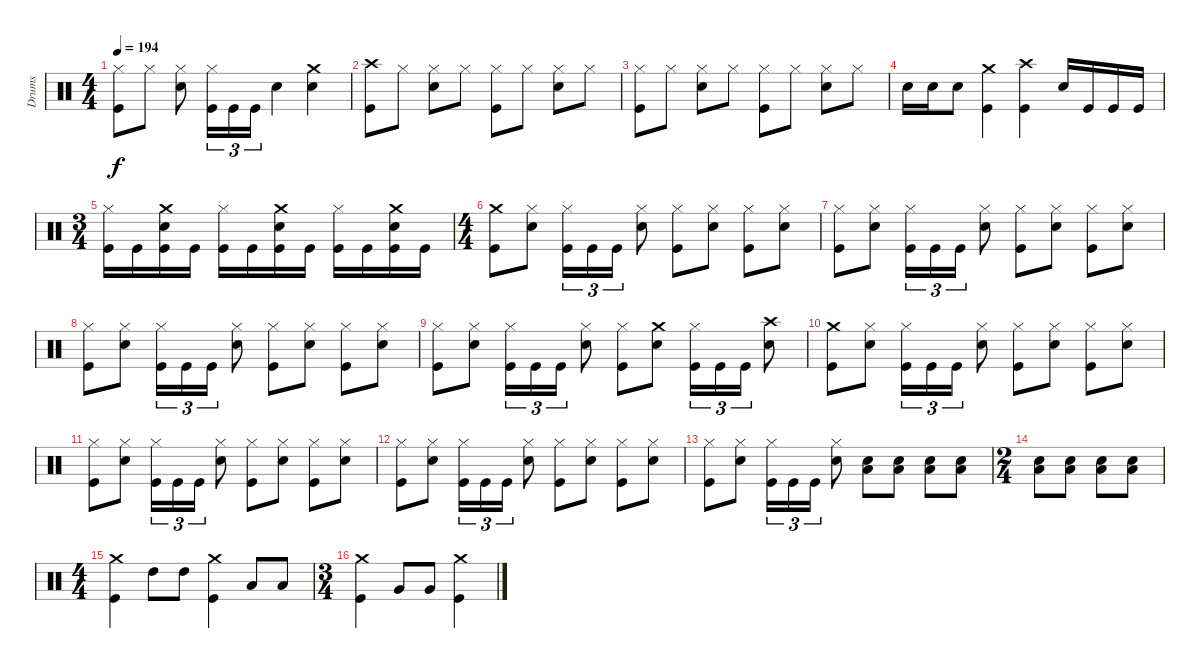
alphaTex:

\track ("Drums" "Drums") {instrument percussion}
\staff {score}
\articulation defaults
\ts (4 4)
\tempo 194
\clef neutral
\ks c
("Hi-Hat (closed)" "Kick (hit)").8{dy f} "Hi-Hat (closed)".8 ("Hi-Hat (closed)" "Snare (hit) 2").8 ("Hi-Hat (closed)" "Kick (hit)").16{tu (3 2)} "Kick (hit)".16{tu (3 2)} "Kick (hit)".16{tu (3 2)} "Snare (hit) 2".4 ("Crash medium (hit)" "Snare (hit) 2").4 |
("Crash high (hit)" "Kick (hit)").8 "Hi-Hat (closed)".8 ("Hi-Hat (closed)" "Snare (hit) 2").8 "Hi-Hat (closed)".8 ("Hi-Hat (closed)" "Kick (hit)").8 "Hi-Hat (closed)".8 ("Hi-Hat (closed)" "Snare (hit) 2").8 "Hi-Hat (closed)".8 |
("Hi-Hat (closed)" "Kick (hit)").8 "Hi-Hat (closed)".8 ("Hi-Hat (closed)" "Snare (hit) 2").8 "Hi-Hat (closed)".8 ("Hi-Hat (closed)" "Kick (hit)").8 "Hi-Hat (closed)".8 ("Hi-Hat (closed)" "Snare (hit) 2").8 "Hi-Hat (closed)".8 |
"Snare (hit) 2".16 "Snare (hit) 2".16 "Snare (hit) 2".8 ("Crash medium (hit)" "Kick (hit)").4 ("Crash high (hit)" "Kick (hit)").4 "Snare (hit) 2".16 "Kick (hit)".16 "Kick (hit)".16 "Kick (hit)".16 |
\ts (3 4)
("Hi-Hat (closed)" "Kick (hit)").16 "Kick (hit)".16 ("Crash medium (hit)" "Snare (hit) 2" "Kick (hit)").16 "Kick (hit)".16 ("Hi-Hat (closed)" "Kick (hit)").16 "Kick (hit)".16 ("Crash medium (hit)" "Snare (hit) 2" "Kick (hit)").16 "Kick (hit)".16 ("Hi-Hat (closed)" "Kick (hit)").16 "Kick (hit)".16 ("Crash medium (hit)" "Snare (hit) 2" "Kick (hit)").16 "Kick (hit)".16 |
\ts (4 4)
("Crash medium (hit)" "Kick (hit)").8 ("Hi-Hat (closed)" "Snare (hit) 2").8 ("Hi-Hat (closed)" "Kick (hit)").16{tu (3 2)} "Kick (hit)".16{tu (3 2)} "Kick (hit)".16{tu (3 2)} ("Hi-Hat (closed)" "Snare (hit) 2").8 ("Hi-Hat (closed)" "Kick (hit)").8 ("Hi-Hat (closed)" "Snare (hit) 2").8 ("Hi-Hat (closed)" "Kick (hit)").8 ("Hi-Hat (closed)" "Snare (hit) 2").8 |
("Hi-Hat (closed)" "Kick (hit)").8 ("Hi-Hat (closed)" "Snare (hit) 2").8 ("Hi-Hat (closed)" "Kick (hit)").16{tu (3 2)} "Kick (hit)".16{tu (3 2)} "Kick (hit)".16{tu (3 2)} ("Hi-Hat (closed)" "Snare (hit) 2").8 ("Hi-Hat (closed)" "Kick (hit)").8 ("Hi-Hat (closed)" "Snare (hit) 2").8 ("Hi-Hat (closed)" "Kick (hit)").8 ("Hi-Hat (closed)" "Snare (hit) 2").8 |
("Hi-Hat (closed)" "Kick (hit)").8 ("Hi-Hat (closed)" "Snare (hit) 2").8 ("Hi-Hat (closed)" "Kick (hit)").16{tu (3 2)} "Kick (hit)".16{tu (3 2)} "Kick (hit)".16{tu (3 2)} ("Hi-Hat (closed)" "Snare (hit) 2").8 ("Hi-Hat (closed)" "Kick (hit)").8 ("Hi-Hat (closed)" "Snare (hit) 2").8 ("Hi-Hat (closed)" "Kick (hit)").8 ("Hi-Hat (closed)" "Snare (hit) 2").8 |
("Hi-Hat (closed)" "Kick (hit)").8 ("Hi-Hat (closed)" "Snare (hit) 2").8 ("Hi-Hat (closed)" "Kick (hit)").16{tu (3 2)} "Kick (hit)".16{tu (3 2)} "Kick (hit)".16{tu (3 2)} ("Hi-Hat (closed)" "Snare (hit) 2").8 ("Hi-Hat (closed)" "Kick (hit)").8 ("Crash medium (hit)" "Snare (hit) 2").8 ("Hi-Hat (closed)" "Kick (hit)").16{tu (3 2)} "Kick (hit)".16{tu (3 2)} "Kick (hit)".16{tu (3 2)} ("Crash high (hit)" "Snare (hit) 2").8 |
("Crash medium (hit)" "Kick (hit)").8 ("Hi-Hat (closed)" "Snare (hit) 2").8 ("Hi-Hat (closed)" "Kick (hit)").16{tu (3 2)} "Kick (hit)".16{tu (3 2)} "Kick (hit)".16{tu (3 2)} ("Hi-Hat (closed)" "Snare (hit) 2").8 ("Hi-Hat (closed)" "Kick (hit)").8 ("Hi-Hat (closed)" "Snare (hit) 2").8 ("Hi-Hat (closed)" "Kick (hit)").8 ("Hi-Hat (closed)" "Snare (hit) 2").8 |
("Hi-Hat (closed)" "Kick (hit)").8 ("Hi-Hat (closed)" "Snare (hit) 2").8 ("Hi-Hat (closed)" "Kick (hit)").16{tu (3 2)} "Kick (hit)".16{tu (3 2)} "Kick (hit)".16{tu (3 2)} ("Hi-Hat (closed)" "Snare (hit) 2").8 ("Hi-Hat (closed)" "Kick (hit)").8 ("Hi-Hat (closed)" "Snare (hit) 2").8 ("Hi-Hat (closed)" "Kick (hit)").8 ("Hi-Hat (closed)" "Snare (hit) 2").8 |
("Hi-Hat (closed)" "Kick (hit)").8 ("Hi-Hat (closed)" "Snare (hit) 2").8 ("Hi-Hat (closed)" "Kick (hit)").16{tu (3 2)} "Kick (hit)".16{tu (3 2)} "Kick (hit)".16{tu (3 2)} ("Hi-Hat (closed)" "Snare (hit) 2").8 ("Hi-Hat (closed)" "Kick (hit)").8 ("Hi-Hat (closed)" "Snare (hit) 2").8 ("Hi-Hat (closed)" "Kick (hit)").8 ("Hi-Hat (closed)" "Snare (hit) 2").8 |
("Hi-Hat (closed)" "Kick (hit)").8 ("Hi-Hat (closed)" "Snare (hit) 2").8 ("Hi-Hat (closed)" "Kick (hit)").16{tu (3 2)} "Kick (hit)".16{tu (3 2)} "Kick (hit)".16{tu (3 2)} ("Hi-Hat (closed)" "Snare (hit) 2").8 ("Low Floor Tom (hit)" "Snare (hit) 2").8 ("Low Floor Tom (hit)" "Snare (hit) 2").8 ("Low Floor Tom (hit)" "Snare (hit) 2").8 ("Low Floor Tom (hit)" "Snare (hit) 2").8 |
\ts (2 4)
("Low Floor Tom (hit)" "Snare (hit) 2").8 ("Low Floor Tom (hit)" "Snare (hit) 2").8 ("Low Floor Tom (hit)" "Snare (hit) 2").8 ("Low Floor Tom (hit)" "Snare (hit) 2").8 |
\ts (4 4)
("Crash medium (hit)" "Kick (hit)").4 "High Tom (hit)".8 "High Tom (hit)".8 ("Crash medium (hit)" "Kick (hit)").4 "Low Tom (hit)".8 "Low Tom (hit)".8 |
\ts (3 4)
("Crash medium (hit)" "Kick (hit)").4 "Very Low Tom (hit)".8 "Very Low Tom (hit)".8 ("Crash medium (hit)" "Kick (hit)").4
